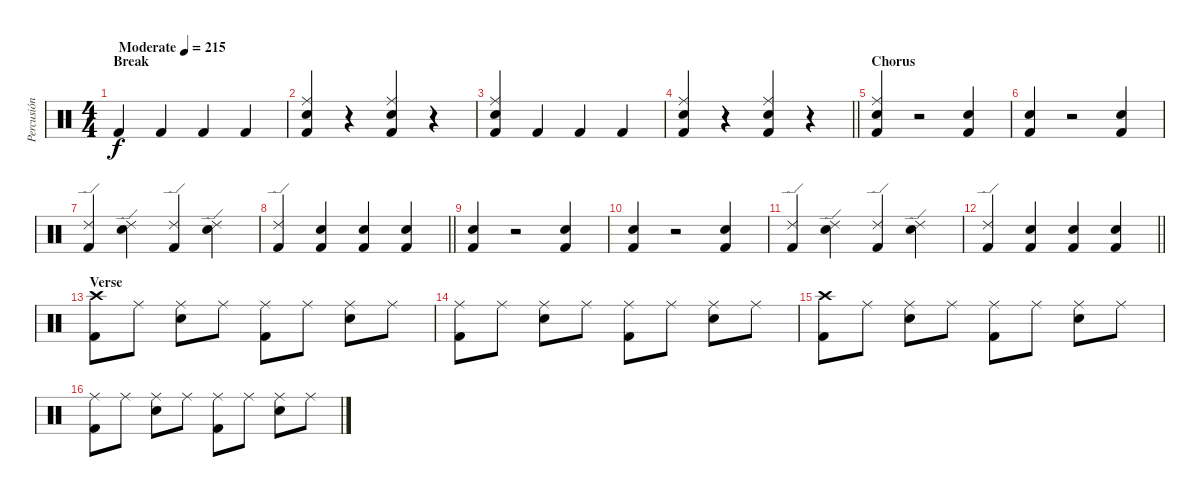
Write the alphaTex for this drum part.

\track ("Percusión" "Percusión") {instrument percussion}
\staff {score}
\articulation defaults
\ts (4 4)
\section ("" "Break")
\tempo (215 "Moderate")
\clef neutral
\ks c "Kick (hit) 2".4{dy f} "Kick (hit) 2".4 "Kick (hit) 2".4 "Kick (hit) 2".4
|
("Ride (middle)" "Snare (hit) 2" "Kick (hit) 2").4 r.4 ("Ride (middle)" "Snare (hit) 2" "Kick (hit) 2").4 r.4 |
("Ride (middle)" "Snare (hit) 2" "Kick (hit) 2").4 "Kick (hit) 2".4 "Kick (hit) 2".4 "Kick (hit) 2".4 |
\barLineRight lightlight
("Ride (middle)" "Snare (hit) 2" "Kick (hit) 2").4 r.4 ("Ride (middle)" "Snare (hit) 2" "Kick (hit) 2").4 r.4 |
\section ("" "Chorus")
("Ride (middle)" "Snare (hit) 2" "Kick (hit) 2").4 r.2 ("Snare (hit) 2" "Kick (hit) 2").4 |
("Snare (hit) 2" "Kick (hit) 2").4 r.2 ("Snare (hit) 2" "Kick (hit) 2").4 |
("Ride (edge) 2" "Kick (hit) 2").4 ("Ride (edge) 2" "Snare (hit) 2").4 ("Ride (edge) 2" "Kick (hit) 2").4 ("Ride (edge) 2" "Snare (hit) 2").4 |
\barLineRight lightlight
("Ride (edge) 2" "Kick (hit) 2").4 ("Snare (hit) 2" "Kick (hit) 2").4 ("Snare (hit) 2" "Kick (hit) 2").4 ("Snare (hit) 2" "Kick (hit) 2").4 |
("Snare (hit) 2" "Kick (hit) 2").4 r.2 ("Snare (hit) 2" "Kick (hit) 2").4 |
("Snare (hit) 2" "Kick (hit) 2").4 r.2 ("Snare (hit) 2" "Kick (hit) 2").4 |
("Ride (edge) 2" "Kick (hit) 2").4 ("Ride (edge) 2" "Snare (hit) 2").4 ("Ride (edge) 2" "Kick (hit) 2").4 ("Ride (edge) 2" "Snare (hit) 2").4 |
\barLineRight lightlight
("Ride (edge) 2" "Kick (hit) 2").4 ("Snare (hit) 2" "Kick (hit) 2").4 ("Snare (hit) 2" "Kick (hit) 2").4 ("Snare (hit) 2" "Kick (hit) 2").4 |
\section ("" "Verse")
("Crash high (hit)" "Kick (hit) 2").8 "Ride (middle)".8 ("Ride (middle)" "Snare (hit) 2").8 "Ride (middle)".8 ("Ride (middle)" "Kick (hit) 2").8 "Ride (middle)".8 ("Ride (middle)" "Snare (hit) 2").8 "Ride (middle)".8 |
("Ride (middle)" "Kick (hit) 2").8 "Ride (middle)".8 ("Ride (middle)" "Snare (hit) 2").8 "Ride (middle)".8 ("Ride (middle)" "Kick (hit) 2").8 "Ride (middle)".8 ("Ride (middle)" "Snare (hit) 2").8 "Ride (middle)".8 |
("Crash high (hit)" "Kick (hit) 2").8 "Ride (middle)".8 ("Ride (middle)" "Snare (hit) 2").8 "Ride (middle)".8 ("Ride (middle)" "Kick (hit) 2").8 "Ride (middle)".8 ("Ride (middle)" "Snare (hit) 2").8 "Ride (middle)".8 |
("Ride (middle)" "Kick (hit) 2").8 "Ride (middle)".8 ("Ride (middle)" "Snare (hit) 2").8 "Ride (middle)".8 ("Ride (middle)" "Kick (hit) 2").8 "Ride (middle)".8 ("Ride (middle)" "Snare (hit) 2").8 "Ride (middle)".8
